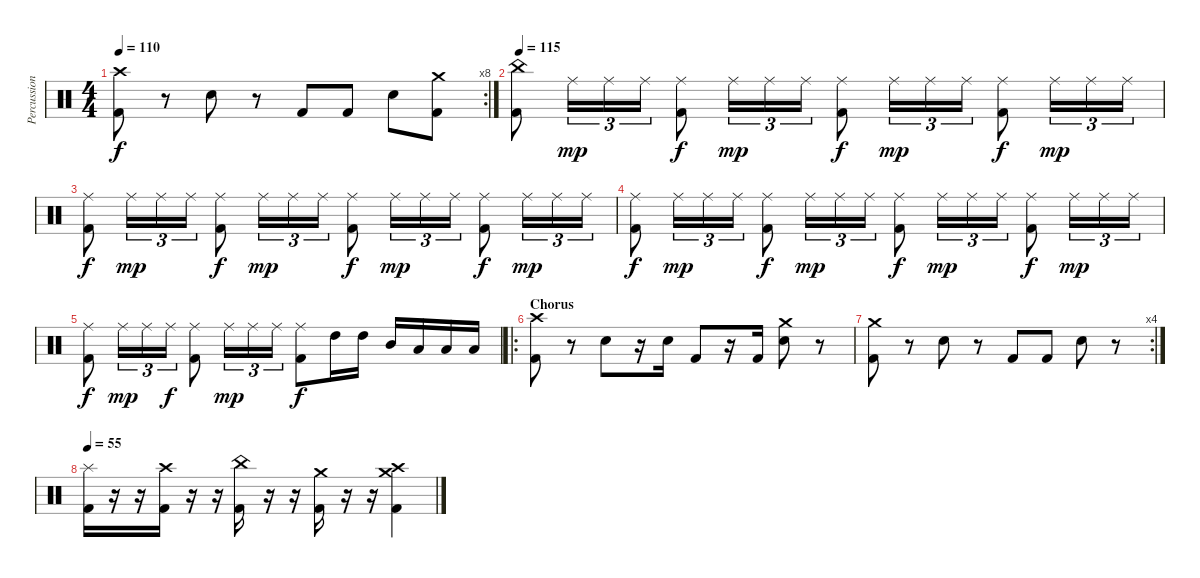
\track ("Percussion (Moon)" "Percussion") {instrument percussion}
\staff {score}
\articulation defaults
\rc 8
\ts (4 4)
\tempo 110
\clef neutral
\ks c
("Crash high (hit)" "Kick (hit) 2").8{dy f} r.8 "Electric Snare (hit)".8 r.8 "Kick (hit) 2".8 "Kick (hit) 2".8 "Electric Snare (hit)".8 ("Crash medium (hit)" "Kick (hit) 2").8 |
\tempo 115
("China (hit)" "Kick (hit) 2").8 "Ride (middle)".16{tu (3 2) dy mp} "Ride (middle)".16{tu (3 2)} "Ride (middle)".16{tu (3 2)} ("Ride (middle)" "Kick (hit) 2").8{dy f} "Ride (middle)".16{tu (3 2) dy mp} "Ride (middle)".16{tu (3 2)} "Ride (middle)".16{tu (3 2)} ("Ride (middle)" "Kick (hit) 2").8{dy f} "Ride (middle)".16{tu (3 2) dy mp} "Ride (middle)".16{tu (3 2)} "Ride (middle)".16{tu (3 2)} ("Ride (middle)" "Kick (hit) 2").8{dy f} "Ride (middle)".16{tu (3 2) dy mp} "Ride (middle)".16{tu (3 2)} "Ride (middle)".16{tu (3 2)} |
("Ride (middle)" "Kick (hit) 2").8{dy f} "Ride (middle)".16{tu (3 2) dy mp} "Ride (middle)".16{tu (3 2)} "Ride (middle)".16{tu (3 2)} ("Ride (middle)" "Kick (hit) 2").8{dy f} "Ride (middle)".16{tu (3 2) dy mp} "Ride (middle)".16{tu (3 2)} "Ride (middle)".16{tu (3 2)} ("Ride (middle)" "Kick (hit) 2").8{dy f} "Ride (middle)".16{tu (3 2) dy mp} "Ride (middle)".16{tu (3 2)} "Ride (middle)".16{tu (3 2)} ("Ride (middle)" "Kick (hit) 2").8{dy f} "Ride (middle)".16{tu (3 2) dy mp} "Ride (middle)".16{tu (3 2)} "Ride (middle)".16{tu (3 2)} |
("Ride (middle)" "Kick (hit) 2").8{dy f} "Ride (middle)".16{tu (3 2) dy mp} "Ride (middle)".16{tu (3 2)} "Ride (middle)".16{tu (3 2)} ("Ride (middle)" "Kick (hit) 2").8{dy f} "Ride (middle)".16{tu (3 2) dy mp} "Ride (middle)".16{tu (3 2)} "Ride (middle)".16{tu (3 2)} ("Ride (middle)" "Kick (hit) 2").8{dy f} "Ride (middle)".16{tu (3 2) dy mp} "Ride (middle)".16{tu (3 2)} "Ride (middle)".16{tu (3 2)} ("Ride (middle)" "Kick (hit) 2").8{dy f} "Ride (middle)".16{tu (3 2) dy mp} "Ride (middle)".16{tu (3 2)} "Ride (middle)".16{tu (3 2)} |
("Ride (middle)" "Kick (hit) 2").8{dy f} "Ride (middle)".16{tu (3 2) dy mp} "Ride (middle)".16{tu (3 2)} "Ride (middle)".16{tu (3 2) dy f} ("Ride (middle)" "Kick (hit) 2").8 "Ride (middle)".16{tu (3 2) dy mp} "Ride (middle)".16{tu (3 2)} "Ride (middle)".16{tu (3 2)} ("Ride (middle)" "Kick (hit) 2").8{dy f} "High Tom (hit)".16 "High Tom (hit)".16 "Mid Tom (hit)".16 "Low Tom (hit)".16 "Low Tom (hit)".16 "Low Tom (hit)".16 |
\ro
\section ("" "Chorus")
("Crash high (hit)" "Kick (hit) 2").8 r.8 "Electric Snare (hit)".8 r.16 "Electric Snare (hit)".16 "Kick (hit) 2".8 r.16 "Kick (hit) 2".16 ("Crash medium (hit)" "Electric Snare (hit)").8 r.8 |
\rc 4
("Crash medium (hit)" "Kick (hit) 2").8 r.8 "Electric Snare (hit)".8 r.8 "Kick (hit) 2".8 "Kick (hit) 2".8 "Electric Snare (hit)".8 r.8 |
\tempo 55
("Splash (hit)" "Kick (hit) 2").16 r.16 r.16 ("Crash high (hit)" "Kick (hit) 2").16 r.16 r.16 ("China (hit)" "Kick (hit) 2").16 r.16 r.16 ("Crash medium (hit)" "Kick (hit) 2").16 r.16 r.16 ("Crash medium (hit)" "Crash high (hit)" "Kick (hit) 2").4
